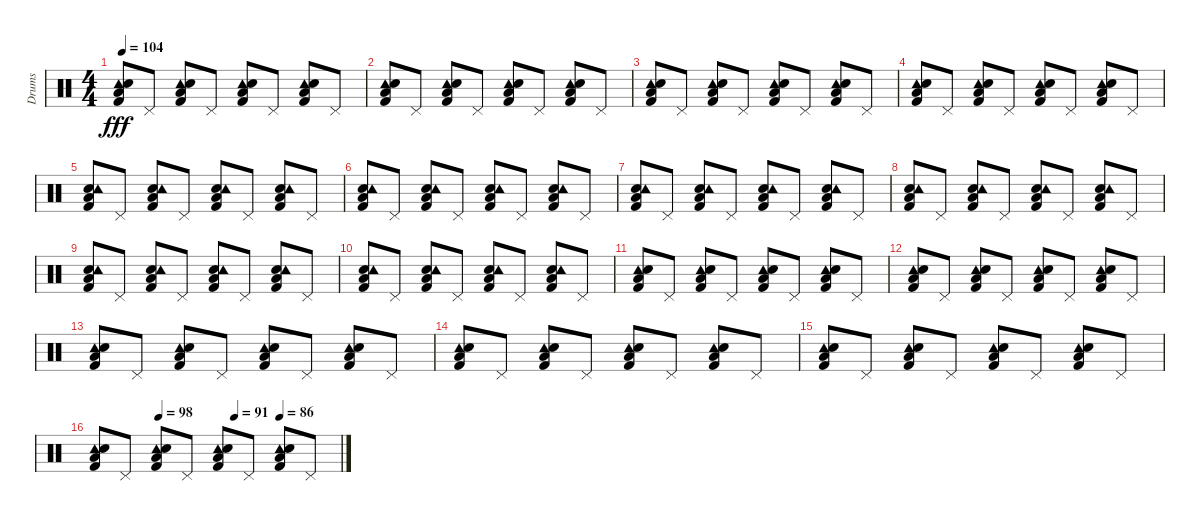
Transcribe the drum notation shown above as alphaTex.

\track ("Drums" "Drums") {instrument percussion}
\staff {score}
\articulation defaults
\ts (4 4)
\tempo 104
\clef neutral
\ks c
("Tambourine (hit)" "Low Floor Tom (hit)" "Kick (hit) 2" "Snare (hit) 2").8{dy fff} "Pedal Hi-Hat (hit)".8 ("Tambourine (hit)" "Low Floor Tom (hit)" "Snare (hit) 2" "Kick (hit) 2").8 "Pedal Hi-Hat (hit)".8 ("Tambourine (hit)" "Low Floor Tom (hit)" "Snare (hit) 2" "Kick (hit) 2").8 "Pedal Hi-Hat (hit)".8 ("Tambourine (hit)" "Low Floor Tom (hit)" "Snare (hit) 2" "Kick (hit) 2").8 "Pedal Hi-Hat (hit)".8 |
("Tambourine (hit)" "Low Floor Tom (hit)" "Kick (hit) 2" "Snare (hit) 2").8 "Pedal Hi-Hat (hit)".8 ("Tambourine (hit)" "Low Floor Tom (hit)" "Snare (hit) 2" "Kick (hit) 2").8 "Pedal Hi-Hat (hit)".8 ("Tambourine (hit)" "Low Floor Tom (hit)" "Snare (hit) 2" "Kick (hit) 2").8 "Pedal Hi-Hat (hit)".8 ("Tambourine (hit)" "Low Floor Tom (hit)" "Snare (hit) 2" "Kick (hit) 2").8 "Pedal Hi-Hat (hit)".8 |
("Tambourine (hit)" "Low Floor Tom (hit)" "Kick (hit) 2" "Snare (hit) 2").8 "Pedal Hi-Hat (hit)".8 ("Tambourine (hit)" "Low Floor Tom (hit)" "Snare (hit) 2" "Kick (hit) 2").8 "Pedal Hi-Hat (hit)".8 ("Tambourine (hit)" "Low Floor Tom (hit)" "Snare (hit) 2" "Kick (hit) 2").8 "Pedal Hi-Hat (hit)".8 ("Tambourine (hit)" "Low Floor Tom (hit)" "Snare (hit) 2" "Kick (hit) 2").8 "Pedal Hi-Hat (hit)".8 |
("Tambourine (hit)" "Low Floor Tom (hit)" "Kick (hit) 2" "Snare (hit) 2").8 "Pedal Hi-Hat (hit)".8 ("Tambourine (hit)" "Low Floor Tom (hit)" "Snare (hit) 2" "Kick (hit) 2").8 "Pedal Hi-Hat (hit)".8 ("Tambourine (hit)" "Low Floor Tom (hit)" "Snare (hit) 2" "Kick (hit) 2").8 "Pedal Hi-Hat (hit)".8 ("Tambourine (hit)" "Low Floor Tom (hit)" "Snare (hit) 2" "Kick (hit) 2").8 "Pedal Hi-Hat (hit)".8 |
("Snare (hit) 2" "Kick (hit) 2" "Low Floor Tom (hit)" "Tambourine (hit)").8 "Pedal Hi-Hat (hit)".8 ("Kick (hit) 2" "Snare (hit) 2" "Low Floor Tom (hit)" "Tambourine (hit)").8 "Pedal Hi-Hat (hit)".8 ("Kick (hit) 2" "Snare (hit) 2" "Low Floor Tom (hit)" "Tambourine (hit)").8 "Pedal Hi-Hat (hit)".8 ("Kick (hit) 2" "Snare (hit) 2" "Low Floor Tom (hit)" "Tambourine (hit)").8 "Pedal Hi-Hat (hit)".8 |
("Snare (hit) 2" "Kick (hit) 2" "Low Floor Tom (hit)" "Tambourine (hit)").8 "Pedal Hi-Hat (hit)".8 ("Kick (hit) 2" "Snare (hit) 2" "Low Floor Tom (hit)" "Tambourine (hit)").8 "Pedal Hi-Hat (hit)".8 ("Kick (hit) 2" "Snare (hit) 2" "Low Floor Tom (hit)" "Tambourine (hit)").8 "Pedal Hi-Hat (hit)".8 ("Kick (hit) 2" "Snare (hit) 2" "Low Floor Tom (hit)" "Tambourine (hit)").8 "Pedal Hi-Hat (hit)".8 |
("Snare (hit) 2" "Kick (hit) 2" "Low Floor Tom (hit)" "Tambourine (hit)").8 "Pedal Hi-Hat (hit)".8 ("Kick (hit) 2" "Snare (hit) 2" "Low Floor Tom (hit)" "Tambourine (hit)").8 "Pedal Hi-Hat (hit)".8 ("Kick (hit) 2" "Snare (hit) 2" "Low Floor Tom (hit)" "Tambourine (hit)").8 "Pedal Hi-Hat (hit)".8 ("Kick (hit) 2" "Snare (hit) 2" "Low Floor Tom (hit)" "Tambourine (hit)").8 "Pedal Hi-Hat (hit)".8 |
("Snare (hit) 2" "Kick (hit) 2" "Low Floor Tom (hit)" "Tambourine (hit)").8 "Pedal Hi-Hat (hit)".8 ("Kick (hit) 2" "Snare (hit) 2" "Low Floor Tom (hit)" "Tambourine (hit)").8 "Pedal Hi-Hat (hit)".8 ("Kick (hit) 2" "Snare (hit) 2" "Low Floor Tom (hit)" "Tambourine (hit)").8 "Pedal Hi-Hat (hit)".8 ("Kick (hit) 2" "Snare (hit) 2" "Low Floor Tom (hit)" "Tambourine (hit)").8 "Pedal Hi-Hat (hit)".8 |
("Snare (hit) 2" "Kick (hit) 2" "Low Floor Tom (hit)" "Tambourine (hit)").8 "Pedal Hi-Hat (hit)".8 ("Kick (hit) 2" "Snare (hit) 2" "Low Floor Tom (hit)" "Tambourine (hit)").8 "Pedal Hi-Hat (hit)".8 ("Kick (hit) 2" "Snare (hit) 2" "Low Floor Tom (hit)" "Tambourine (hit)").8 "Pedal Hi-Hat (hit)".8 ("Kick (hit) 2" "Snare (hit) 2" "Low Floor Tom (hit)" "Tambourine (hit)").8 "Pedal Hi-Hat (hit)".8 |
("Snare (hit) 2" "Kick (hit) 2" "Low Floor Tom (hit)" "Tambourine (hit)").8 "Pedal Hi-Hat (hit)".8 ("Kick (hit) 2" "Snare (hit) 2" "Low Floor Tom (hit)" "Tambourine (hit)").8 "Pedal Hi-Hat (hit)".8 ("Kick (hit) 2" "Snare (hit) 2" "Low Floor Tom (hit)" "Tambourine (hit)").8 "Pedal Hi-Hat (hit)".8 ("Kick (hit) 2" "Snare (hit) 2" "Low Floor Tom (hit)" "Tambourine (hit)").8 "Pedal Hi-Hat (hit)".8 |
("Tambourine (hit)" "Low Floor Tom (hit)" "Kick (hit) 2" "Snare (hit) 2").8 "Pedal Hi-Hat (hit)".8 ("Tambourine (hit)" "Low Floor Tom (hit)" "Snare (hit) 2" "Kick (hit) 2").8 "Pedal Hi-Hat (hit)".8 ("Tambourine (hit)" "Low Floor Tom (hit)" "Snare (hit) 2" "Kick (hit) 2").8 "Pedal Hi-Hat (hit)".8 ("Tambourine (hit)" "Low Floor Tom (hit)" "Snare (hit) 2" "Kick (hit) 2").8 "Pedal Hi-Hat (hit)".8 |
("Tambourine (hit)" "Low Floor Tom (hit)" "Kick (hit) 2" "Snare (hit) 2").8 "Pedal Hi-Hat (hit)".8 ("Tambourine (hit)" "Low Floor Tom (hit)" "Snare (hit) 2" "Kick (hit) 2").8 "Pedal Hi-Hat (hit)".8 ("Tambourine (hit)" "Low Floor Tom (hit)" "Snare (hit) 2" "Kick (hit) 2").8 "Pedal Hi-Hat (hit)".8 ("Tambourine (hit)" "Low Floor Tom (hit)" "Snare (hit) 2" "Kick (hit) 2").8 "Pedal Hi-Hat (hit)".8 |
("Tambourine (hit)" "Low Floor Tom (hit)" "Kick (hit) 2" "Snare (hit) 2").8 "Pedal Hi-Hat (hit)".8 ("Tambourine (hit)" "Low Floor Tom (hit)" "Snare (hit) 2" "Kick (hit) 2").8 "Pedal Hi-Hat (hit)".8 ("Tambourine (hit)" "Low Floor Tom (hit)" "Snare (hit) 2" "Kick (hit) 2").8 "Pedal Hi-Hat (hit)".8 ("Tambourine (hit)" "Low Floor Tom (hit)" "Snare (hit) 2" "Kick (hit) 2").8 "Pedal Hi-Hat (hit)".8 |
("Tambourine (hit)" "Low Floor Tom (hit)" "Kick (hit) 2" "Snare (hit) 2").8 "Pedal Hi-Hat (hit)".8 ("Tambourine (hit)" "Low Floor Tom (hit)" "Snare (hit) 2" "Kick (hit) 2").8 "Pedal Hi-Hat (hit)".8 ("Tambourine (hit)" "Low Floor Tom (hit)" "Snare (hit) 2" "Kick (hit) 2").8 "Pedal Hi-Hat (hit)".8 ("Tambourine (hit)" "Low Floor Tom (hit)" "Snare (hit) 2" "Kick (hit) 2").8 "Pedal Hi-Hat (hit)".8 |
("Tambourine (hit)" "Low Floor Tom (hit)" "Kick (hit) 2" "Snare (hit) 2").8 "Pedal Hi-Hat (hit)".8 ("Tambourine (hit)" "Low Floor Tom (hit)" "Snare (hit) 2" "Kick (hit) 2").8 "Pedal Hi-Hat (hit)".8 ("Tambourine (hit)" "Low Floor Tom (hit)" "Snare (hit) 2" "Kick (hit) 2").8 "Pedal Hi-Hat (hit)".8 ("Tambourine (hit)" "Low Floor Tom (hit)" "Snare (hit) 2" "Kick (hit) 2").8 "Pedal Hi-Hat (hit)".8 |
\tempo (98 0.25)
\tempo (91 0.5625)
\tempo (86 0.75)
("Tambourine (hit)" "Low Floor Tom (hit)" "Kick (hit) 2" "Snare (hit) 2").8 "Pedal Hi-Hat (hit)".8 ("Tambourine (hit)" "Low Floor Tom (hit)" "Snare (hit) 2" "Kick (hit) 2").8 "Pedal Hi-Hat (hit)".8 ("Tambourine (hit)" "Low Floor Tom (hit)" "Snare (hit) 2" "Kick (hit) 2").8 "Pedal Hi-Hat (hit)".8 ("Tambourine (hit)" "Low Floor Tom (hit)" "Snare (hit) 2" "Kick (hit) 2").8 "Pedal Hi-Hat (hit)".8
